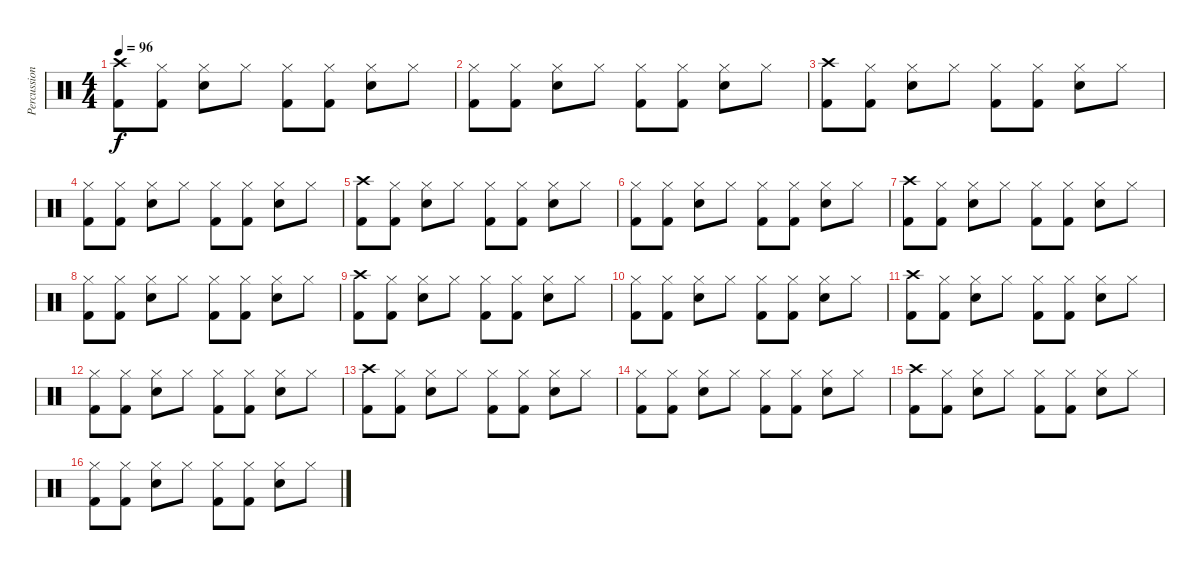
\track ("Percussions" "Percussion") {instrument percussion}
\staff {score}
\articulation defaults
\ts (4 4)
\tempo 96
\clef neutral
\ks c
("Crash high (hit)" "Kick (hit) 2").8{dy f} ("Hi-Hat (closed)" "Kick (hit) 2").8 ("Hi-Hat (closed)" "Snare (hit) 2").8 "Hi-Hat (closed)".8 ("Hi-Hat (closed)" "Kick (hit) 2").8 ("Hi-Hat (closed)" "Kick (hit) 2").8 ("Hi-Hat (closed)" "Snare (hit) 2").8 "Hi-Hat (closed)".8 |
("Hi-Hat (closed)" "Kick (hit) 2").8 ("Hi-Hat (closed)" "Kick (hit) 2").8 ("Hi-Hat (closed)" "Snare (hit) 2").8 "Hi-Hat (closed)".8 ("Hi-Hat (closed)" "Kick (hit) 2").8 ("Hi-Hat (closed)" "Kick (hit) 2").8 ("Hi-Hat (closed)" "Snare (hit) 2").8 "Hi-Hat (closed)".8 |
("Crash high (hit)" "Kick (hit) 2").8 ("Hi-Hat (closed)" "Kick (hit) 2").8 ("Hi-Hat (closed)" "Snare (hit) 2").8 "Hi-Hat (closed)".8 ("Hi-Hat (closed)" "Kick (hit) 2").8 ("Hi-Hat (closed)" "Kick (hit) 2").8 ("Hi-Hat (closed)" "Snare (hit) 2").8 "Hi-Hat (closed)".8 |
("Hi-Hat (closed)" "Kick (hit) 2").8 ("Hi-Hat (closed)" "Kick (hit) 2").8 ("Hi-Hat (closed)" "Snare (hit) 2").8 "Hi-Hat (closed)".8 ("Hi-Hat (closed)" "Kick (hit) 2").8 ("Hi-Hat (closed)" "Kick (hit) 2").8 ("Hi-Hat (closed)" "Snare (hit) 2").8 "Hi-Hat (closed)".8 |
("Crash high (hit)" "Kick (hit) 2").8 ("Hi-Hat (closed)" "Kick (hit) 2").8 ("Hi-Hat (closed)" "Snare (hit) 2").8 "Hi-Hat (closed)".8 ("Hi-Hat (closed)" "Kick (hit) 2").8 ("Hi-Hat (closed)" "Kick (hit) 2").8 ("Hi-Hat (closed)" "Snare (hit) 2").8 "Hi-Hat (closed)".8 |
("Hi-Hat (closed)" "Kick (hit) 2").8 ("Hi-Hat (closed)" "Kick (hit) 2").8 ("Hi-Hat (closed)" "Snare (hit) 2").8 "Hi-Hat (closed)".8 ("Hi-Hat (closed)" "Kick (hit) 2").8 ("Hi-Hat (closed)" "Kick (hit) 2").8 ("Hi-Hat (closed)" "Snare (hit) 2").8 "Hi-Hat (closed)".8 |
("Crash high (hit)" "Kick (hit) 2").8 ("Hi-Hat (closed)" "Kick (hit) 2").8 ("Hi-Hat (closed)" "Snare (hit) 2").8 "Hi-Hat (closed)".8 ("Hi-Hat (closed)" "Kick (hit) 2").8 ("Hi-Hat (closed)" "Kick (hit) 2").8 ("Hi-Hat (closed)" "Snare (hit) 2").8 "Hi-Hat (closed)".8 |
("Hi-Hat (closed)" "Kick (hit) 2").8 ("Hi-Hat (closed)" "Kick (hit) 2").8 ("Hi-Hat (closed)" "Snare (hit) 2").8 "Hi-Hat (closed)".8 ("Hi-Hat (closed)" "Kick (hit) 2").8 ("Hi-Hat (closed)" "Kick (hit) 2").8 ("Hi-Hat (closed)" "Snare (hit) 2").8 "Hi-Hat (closed)".8 |
("Crash high (hit)" "Kick (hit) 2").8 ("Hi-Hat (closed)" "Kick (hit) 2").8 ("Hi-Hat (closed)" "Snare (hit) 2").8 "Hi-Hat (closed)".8 ("Hi-Hat (closed)" "Kick (hit) 2").8 ("Hi-Hat (closed)" "Kick (hit) 2").8 ("Hi-Hat (closed)" "Snare (hit) 2").8 "Hi-Hat (closed)".8 |
("Hi-Hat (closed)" "Kick (hit) 2").8 ("Hi-Hat (closed)" "Kick (hit) 2").8 ("Hi-Hat (closed)" "Snare (hit) 2").8 "Hi-Hat (closed)".8 ("Hi-Hat (closed)" "Kick (hit) 2").8 ("Hi-Hat (closed)" "Kick (hit) 2").8 ("Hi-Hat (closed)" "Snare (hit) 2").8 "Hi-Hat (closed)".8 |
("Crash high (hit)" "Kick (hit) 2").8 ("Hi-Hat (closed)" "Kick (hit) 2").8 ("Hi-Hat (closed)" "Snare (hit) 2").8 "Hi-Hat (closed)".8 ("Hi-Hat (closed)" "Kick (hit) 2").8 ("Hi-Hat (closed)" "Kick (hit) 2").8 ("Hi-Hat (closed)" "Snare (hit) 2").8 "Hi-Hat (closed)".8 |
("Hi-Hat (closed)" "Kick (hit) 2").8 ("Hi-Hat (closed)" "Kick (hit) 2").8 ("Hi-Hat (closed)" "Snare (hit) 2").8 "Hi-Hat (closed)".8 ("Hi-Hat (closed)" "Kick (hit) 2").8 ("Hi-Hat (closed)" "Kick (hit) 2").8 ("Hi-Hat (closed)" "Snare (hit) 2").8 "Hi-Hat (closed)".8 |
("Crash high (hit)" "Kick (hit) 2").8 ("Hi-Hat (closed)" "Kick (hit) 2").8 ("Hi-Hat (closed)" "Snare (hit) 2").8 "Hi-Hat (closed)".8 ("Hi-Hat (closed)" "Kick (hit) 2").8 ("Hi-Hat (closed)" "Kick (hit) 2").8 ("Hi-Hat (closed)" "Snare (hit) 2").8 "Hi-Hat (closed)".8 |
("Hi-Hat (closed)" "Kick (hit) 2").8 ("Hi-Hat (closed)" "Kick (hit) 2").8 ("Hi-Hat (closed)" "Snare (hit) 2").8 "Hi-Hat (closed)".8 ("Hi-Hat (closed)" "Kick (hit) 2").8 ("Hi-Hat (closed)" "Kick (hit) 2").8 ("Hi-Hat (closed)" "Snare (hit) 2").8 "Hi-Hat (closed)".8 |
("Crash high (hit)" "Kick (hit) 2").8 ("Hi-Hat (closed)" "Kick (hit) 2").8 ("Hi-Hat (closed)" "Snare (hit) 2").8 "Hi-Hat (closed)".8 ("Hi-Hat (closed)" "Kick (hit) 2").8 ("Hi-Hat (closed)" "Kick (hit) 2").8 ("Hi-Hat (closed)" "Snare (hit) 2").8 "Hi-Hat (closed)".8 |
("Hi-Hat (closed)" "Kick (hit) 2").8 ("Hi-Hat (closed)" "Kick (hit) 2").8 ("Hi-Hat (closed)" "Snare (hit) 2").8 "Hi-Hat (closed)".8 ("Hi-Hat (closed)" "Kick (hit) 2").8 ("Hi-Hat (closed)" "Kick (hit) 2").8 ("Hi-Hat (closed)" "Snare (hit) 2").8 "Hi-Hat (closed)".8
